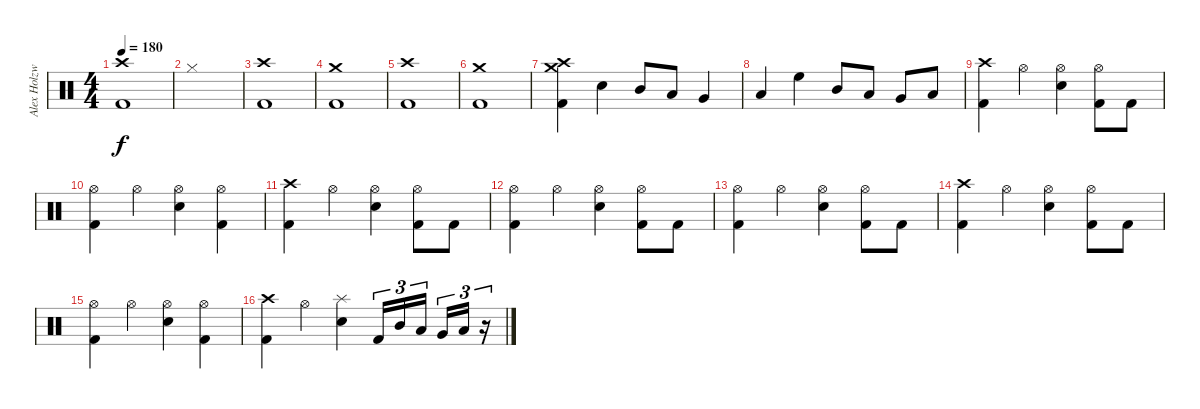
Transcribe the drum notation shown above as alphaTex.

\track ("Alex Holzwarth" "Alex Holzw") {instrument percussion}
\staff {score}
\articulation defaults
\ts (4 4)
\tempo 180
\clef neutral
\ks c
("Crash high (hit)" "Kick (hit) 2").1{dy f} |
"Hi-Hat (closed)".1 |
("Crash high (hit)" "Kick (hit) 2").1 |
("Crash medium (hit)" "Kick (hit) 2").1 |
("Crash high (hit)" "Kick (hit) 2").1 |
("Crash medium (hit)" "Kick (hit) 2").1 |
("Crash high (hit)" "Crash medium (hit)" "Kick (hit) 2").4 "Electric Snare (hit)".4 "Mid Tom (hit)".8 "Low Tom (hit)".8 "Very Low Tom (hit)".4 |
"Low Tom (hit)".4 "High Floor Tom (hit)".4 "Mid Tom (hit)".8 "Low Tom (hit)".8 "Very Low Tom (hit)".8 "Low Floor Tom (hit)".8 |
("Crash high (hit)" "Kick (hit) 2").4 "Hi-Hat (open)".4 ("Hi-Hat (open)" "Electric Snare (hit)").4 ("Hi-Hat (open)" "Kick (hit) 2").8 "Kick (hit) 2".8 |
("Hi-Hat (open)" "Kick (hit) 2").4 "Hi-Hat (open)".4 ("Hi-Hat (open)" "Electric Snare (hit)").4 ("Hi-Hat (open)" "Kick (hit) 2").4 |
("Crash high (hit)" "Kick (hit) 2").4 "Hi-Hat (open)".4 ("Hi-Hat (open)" "Electric Snare (hit)").4 ("Hi-Hat (open)" "Kick (hit) 2").8 "Kick (hit) 2".8 |
("Hi-Hat (open)" "Kick (hit) 2").4 "Hi-Hat (open)".4 ("Hi-Hat (open)" "Electric Snare (hit)").4 ("Hi-Hat (open)" "Kick (hit) 2").8 "Kick (hit) 2".8 |
("Hi-Hat (open)" "Kick (hit) 2").4 "Hi-Hat (open)".4 ("Hi-Hat (open)" "Electric Snare (hit)").4 ("Hi-Hat (open)" "Kick (hit) 2").8 "Kick (hit) 2".8 |
("Crash high (hit)" "Kick (hit) 2").4 "Hi-Hat (open)".4 ("Hi-Hat (open)" "Electric Snare (hit)").4 ("Hi-Hat (open)" "Kick (hit) 2").8 "Kick (hit) 2".8 |
("Hi-Hat (open)" "Kick (hit) 2").4 "Hi-Hat (open)".4 ("Hi-Hat (open)" "Electric Snare (hit)").4 ("Hi-Hat (open)" "Kick (hit) 2").4 |
("Crash high (hit)" "Kick (hit) 2").4 "Hi-Hat (open)".4 ("Splash (hit)" "Electric Snare (hit)").4 "Kick (hit) 2".16{tu (3 2)} "Mid Tom (hit)".16{tu (3 2)} "Low Tom (hit)".16{tu (3 2) beam splitsecondary} "Very Low Tom (hit)".16{tu (3 2)} "Low Floor Tom (hit)".16{tu (3 2)} r.16{tu (3 2)}
